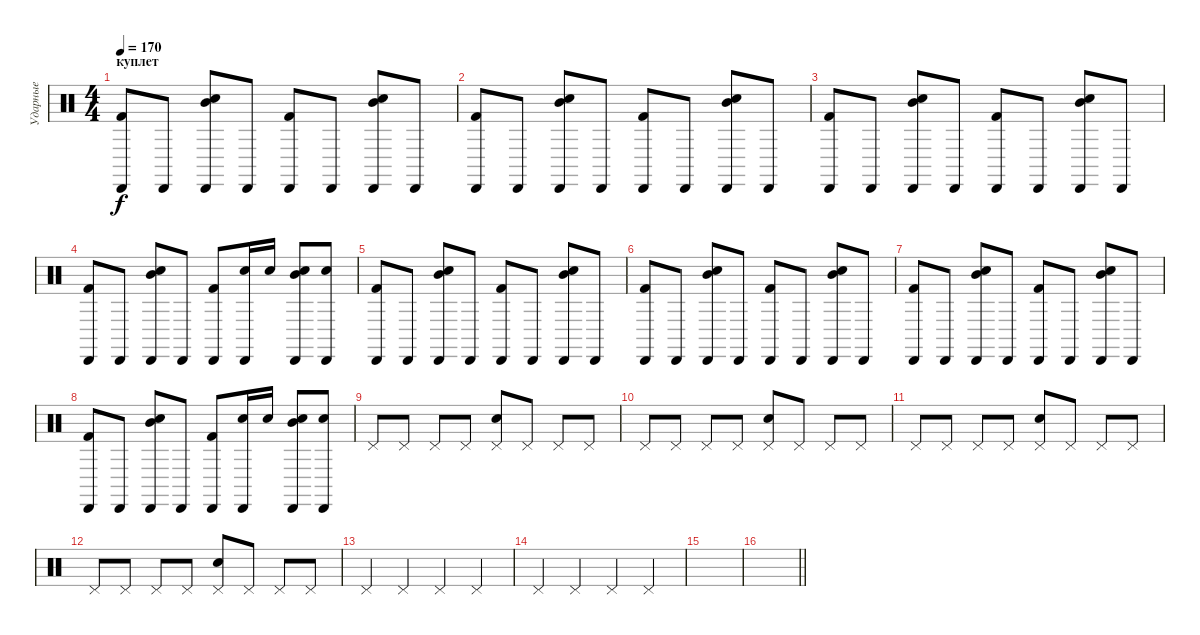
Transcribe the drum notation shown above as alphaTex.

\track ("Ударные" "Ударные") {instrument percussion}
\staff {score}
\articulation defaults
\ts (4 4)
\section ("" "куплет")
\tempo 170
\clef neutral
\ks c
("Kick (hit) 2" "Cabasa (hit)").8{dy f} "Cabasa (hit)".8 ("Electric Snare (hit)" "Mid Tom (hit)" "Cabasa (hit)").8 "Cabasa (hit)".8 ("Cabasa (hit)" "Kick (hit) 2").8 "Cabasa (hit)".8 ("Cabasa (hit)" "Electric Snare (hit)" "Mid Tom (hit)").8 "Cabasa (hit)".8 |
("Cabasa (hit)" "Kick (hit) 2").8 "Cabasa (hit)".8 ("Electric Snare (hit)" "Cabasa (hit)" "Mid Tom (hit)").8 "Cabasa (hit)".8 ("Cabasa (hit)" "Kick (hit) 2").8 "Cabasa (hit)".8 ("Mid Tom (hit)" "Electric Snare (hit)" "Cabasa (hit)").8 "Cabasa (hit)".8 |
("Kick (hit) 2" "Cabasa (hit)").8 "Cabasa (hit)".8 ("Electric Snare (hit)" "Mid Tom (hit)" "Cabasa (hit)").8 "Cabasa (hit)".8 ("Cabasa (hit)" "Kick (hit) 2").8 "Cabasa (hit)".8 ("Cabasa (hit)" "Electric Snare (hit)" "Mid Tom (hit)").8 "Cabasa (hit)".8 |
("Cabasa (hit)" "Kick (hit) 2").8 "Cabasa (hit)".8 ("Electric Snare (hit)" "Cabasa (hit)" "Mid Tom (hit)").8 "Cabasa (hit)".8 ("Cabasa (hit)" "Kick (hit) 2").8 ("Electric Snare (hit)" "Cabasa (hit)").16 "Electric Snare (hit)".16 ("Electric Snare (hit)" "Mid Tom (hit)" "Cabasa (hit)").8 ("Electric Snare (hit)" "Cabasa (hit)").8 |
("Kick (hit) 2" "Cabasa (hit)").8 "Cabasa (hit)".8 ("Electric Snare (hit)" "Mid Tom (hit)" "Cabasa (hit)").8 "Cabasa (hit)".8 ("Cabasa (hit)" "Kick (hit) 2").8 "Cabasa (hit)".8 ("Cabasa (hit)" "Electric Snare (hit)" "Mid Tom (hit)").8 "Cabasa (hit)".8 |
("Cabasa (hit)" "Kick (hit) 2").8 "Cabasa (hit)".8 ("Electric Snare (hit)" "Cabasa (hit)" "Mid Tom (hit)").8 "Cabasa (hit)".8 ("Cabasa (hit)" "Kick (hit) 2").8 "Cabasa (hit)".8 ("Mid Tom (hit)" "Electric Snare (hit)" "Cabasa (hit)").8 "Cabasa (hit)".8 |
("Kick (hit) 2" "Cabasa (hit)").8 "Cabasa (hit)".8 ("Electric Snare (hit)" "Mid Tom (hit)" "Cabasa (hit)").8 "Cabasa (hit)".8 ("Cabasa (hit)" "Kick (hit) 2").8 "Cabasa (hit)".8 ("Cabasa (hit)" "Electric Snare (hit)" "Mid Tom (hit)").8 "Cabasa (hit)".8 |
("Cabasa (hit)" "Kick (hit) 2").8 "Cabasa (hit)".8 ("Electric Snare (hit)" "Cabasa (hit)" "Mid Tom (hit)").8 "Cabasa (hit)".8 ("Cabasa (hit)" "Kick (hit) 2").8 ("Electric Snare (hit)" "Cabasa (hit)").16 "Electric Snare (hit)".16 ("Electric Snare (hit)" "Mid Tom (hit)" "Cabasa (hit)").8 ("Electric Snare (hit)" "Cabasa (hit)").8 |
"Pedal Hi-Hat (hit)".8 "Pedal Hi-Hat (hit)".8 "Pedal Hi-Hat (hit)".8 "Pedal Hi-Hat (hit)".8 ("Electric Snare (hit)" "Pedal Hi-Hat (hit)").8 "Pedal Hi-Hat (hit)".8 "Pedal Hi-Hat (hit)".8 "Pedal Hi-Hat (hit)".8 |
"Pedal Hi-Hat (hit)".8 "Pedal Hi-Hat (hit)".8 "Pedal Hi-Hat (hit)".8 "Pedal Hi-Hat (hit)".8 ("Electric Snare (hit)" "Pedal Hi-Hat (hit)").8 "Pedal Hi-Hat (hit)".8 "Pedal Hi-Hat (hit)".8 "Pedal Hi-Hat (hit)".8 |
"Pedal Hi-Hat (hit)".8 "Pedal Hi-Hat (hit)".8 "Pedal Hi-Hat (hit)".8 "Pedal Hi-Hat (hit)".8 ("Electric Snare (hit)" "Pedal Hi-Hat (hit)").8 "Pedal Hi-Hat (hit)".8 "Pedal Hi-Hat (hit)".8 "Pedal Hi-Hat (hit)".8 |
"Pedal Hi-Hat (hit)".8 "Pedal Hi-Hat (hit)".8 "Pedal Hi-Hat (hit)".8 "Pedal Hi-Hat (hit)".8 ("Electric Snare (hit)" "Pedal Hi-Hat (hit)").8 "Pedal Hi-Hat (hit)".8 "Pedal Hi-Hat (hit)".8 "Pedal Hi-Hat (hit)".8 |
"Pedal Hi-Hat (hit)".4 "Pedal Hi-Hat (hit)".4 "Pedal Hi-Hat (hit)".4 "Pedal Hi-Hat (hit)".4 |
"Pedal Hi-Hat (hit)".4 "Pedal Hi-Hat (hit)".4 "Pedal Hi-Hat (hit)".4 "Pedal Hi-Hat (hit)".4 |
|
\barLineRight lightlight
